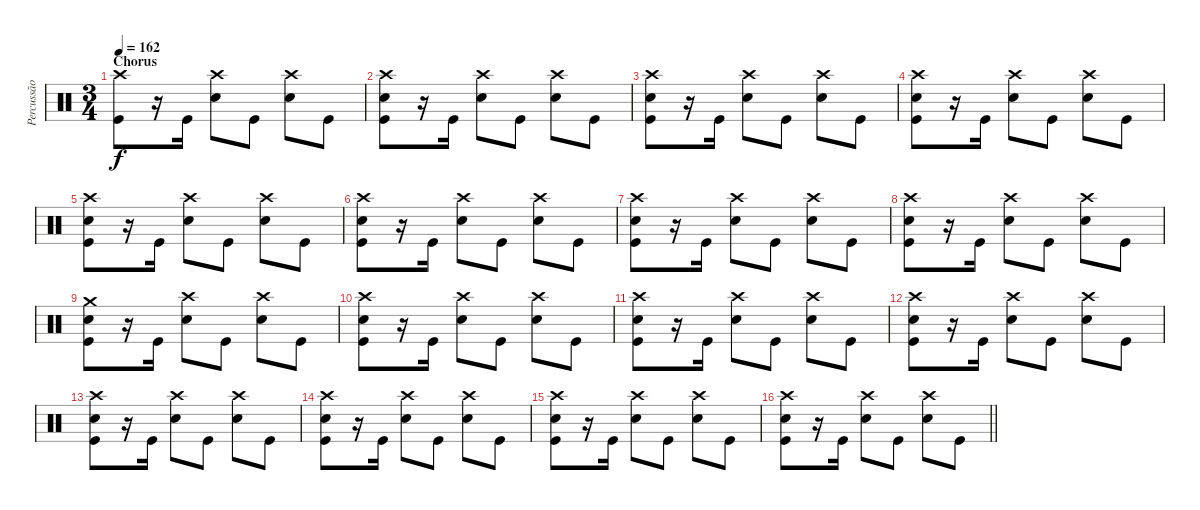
\track ("Percussão" "Percussão") {instrument percussion}
\staff {score}
\articulation defaults
\ts (3 4)
\section ("" "Chorus")
\tempo 162
\clef neutral
\ks c
("Crash high (hit)" "Kick (hit)").8{dy f} r.16 "Kick (hit)".16 ("Crash high (hit)" "Snare (hit) 2").8 "Kick (hit)".8 ("Crash high (hit)" "Snare (hit) 2").8 "Kick (hit)".8 |
("Crash high (hit)" "Snare (hit) 2" "Kick (hit)").8 r.16 "Kick (hit)".16 ("Crash high (hit)" "Snare (hit) 2").8 "Kick (hit)".8 ("Crash high (hit)" "Snare (hit) 2").8 "Kick (hit)".8 |
("Crash high (hit)" "Snare (hit) 2" "Kick (hit)").8 r.16 "Kick (hit)".16 ("Crash high (hit)" "Snare (hit) 2").8 "Kick (hit)".8 ("Crash high (hit)" "Snare (hit) 2").8 "Kick (hit)".8 |
("Crash high (hit)" "Snare (hit) 2" "Kick (hit)").8 r.16 "Kick (hit)".16 ("Crash high (hit)" "Snare (hit) 2").8 "Kick (hit)".8 ("Crash high (hit)" "Snare (hit) 2").8 "Kick (hit)".8 |
("Crash high (hit)" "Snare (hit) 2" "Kick (hit)").8 r.16 "Kick (hit)".16 ("Crash high (hit)" "Snare (hit) 2").8 "Kick (hit)".8 ("Crash high (hit)" "Snare (hit) 2").8 "Kick (hit)".8 |
("Crash high (hit)" "Snare (hit) 2" "Kick (hit)").8 r.16 "Kick (hit)".16 ("Crash high (hit)" "Snare (hit) 2").8 "Kick (hit)".8 ("Crash high (hit)" "Snare (hit) 2").8 "Kick (hit)".8 |
("Crash high (hit)" "Snare (hit) 2" "Kick (hit)").8 r.16 "Kick (hit)".16 ("Crash high (hit)" "Snare (hit) 2").8 "Kick (hit)".8 ("Crash high (hit)" "Snare (hit) 2").8 "Kick (hit)".8 |
("Crash high (hit)" "Snare (hit) 2" "Kick (hit)").8 r.16 "Kick (hit)".16 ("Crash high (hit)" "Snare (hit) 2").8 "Kick (hit)".8 ("Crash high (hit)" "Snare (hit) 2").8 "Kick (hit)".8 |
("Crash medium (hit)" "Snare (hit) 2" "Kick (hit)").8 r.16 "Kick (hit)".16 ("Crash high (hit)" "Snare (hit) 2").8 "Kick (hit)".8 ("Crash high (hit)" "Snare (hit) 2").8 "Kick (hit)".8 |
("Crash high (hit)" "Snare (hit) 2" "Kick (hit)").8 r.16 "Kick (hit)".16 ("Crash high (hit)" "Snare (hit) 2").8 "Kick (hit)".8 ("Crash high (hit)" "Snare (hit) 2").8 "Kick (hit)".8 |
("Crash high (hit)" "Snare (hit) 2" "Kick (hit)").8 r.16 "Kick (hit)".16 ("Crash high (hit)" "Snare (hit) 2").8 "Kick (hit)".8 ("Crash high (hit)" "Snare (hit) 2").8 "Kick (hit)".8 |
("Crash high (hit)" "Snare (hit) 2" "Kick (hit)").8 r.16 "Kick (hit)".16 ("Crash high (hit)" "Snare (hit) 2").8 "Kick (hit)".8 ("Crash high (hit)" "Snare (hit) 2").8 "Kick (hit)".8 |
("Crash high (hit)" "Snare (hit) 2" "Kick (hit)").8 r.16 "Kick (hit)".16 ("Crash high (hit)" "Snare (hit) 2").8 "Kick (hit)".8 ("Crash high (hit)" "Snare (hit) 2").8 "Kick (hit)".8 |
("Crash high (hit)" "Snare (hit) 2" "Kick (hit)").8 r.16 "Kick (hit)".16 ("Crash high (hit)" "Snare (hit) 2").8 "Kick (hit)".8 ("Crash high (hit)" "Snare (hit) 2").8 "Kick (hit)".8 |
("Crash high (hit)" "Snare (hit) 2" "Kick (hit)").8 r.16 "Kick (hit)".16 ("Crash high (hit)" "Snare (hit) 2").8 "Kick (hit)".8 ("Crash high (hit)" "Snare (hit) 2").8 "Kick (hit)".8 |
\barLineRight lightlight
("Crash high (hit)" "Snare (hit) 2" "Kick (hit)").8 r.16 "Kick (hit)".16 ("Crash high (hit)" "Snare (hit) 2").8 "Kick (hit)".8 ("Crash high (hit)" "Snare (hit) 2").8 "Kick (hit)".8
